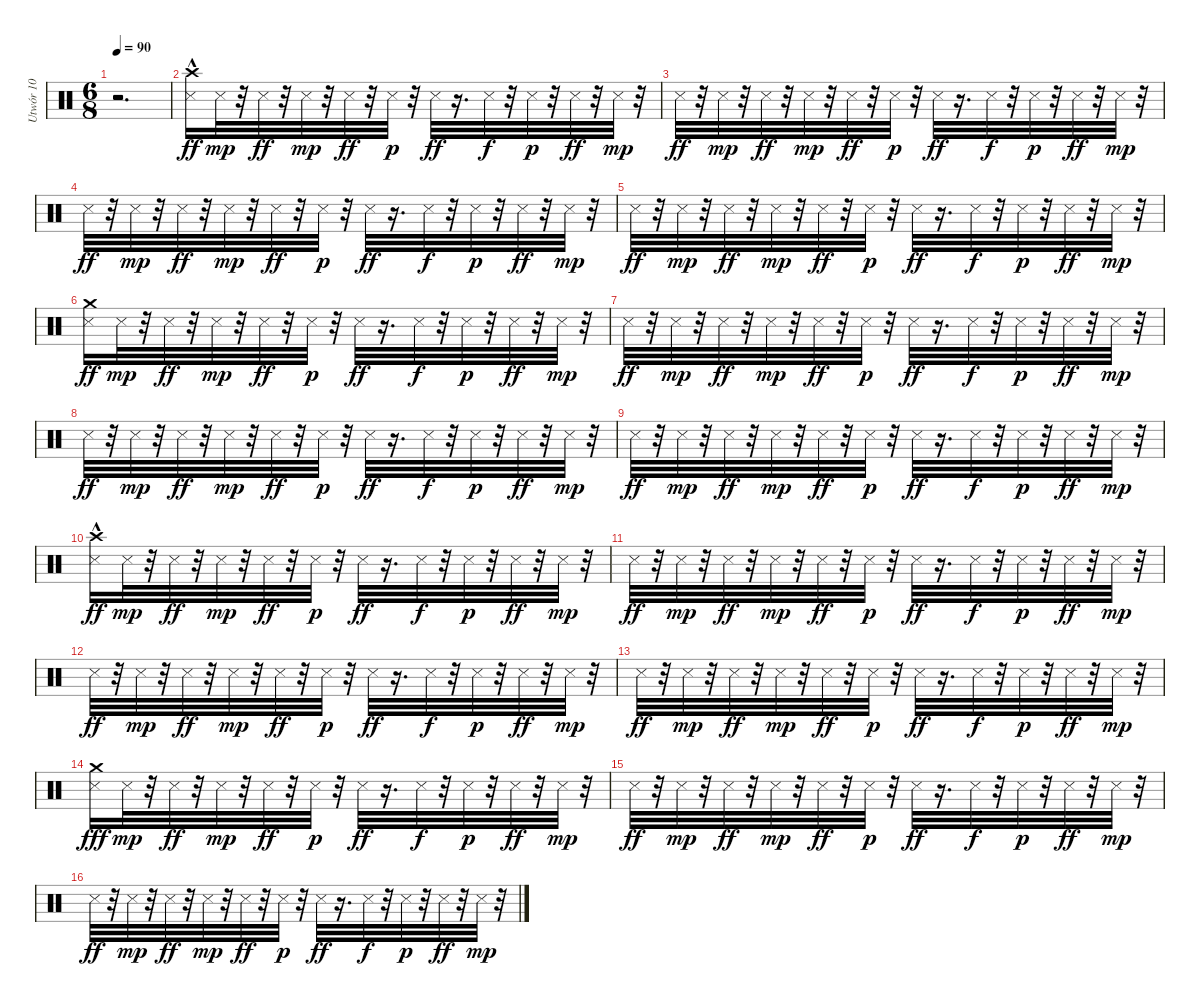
\track ("Utwór 10" "Utwór 10") {instrument percussion}
\staff {score}
\articulation defaults
\ts (6 8)
\tempo 90
\clef neutral
\ks c
r.2{d dy ff} |
("Crash high (hit)"{hac} "Snare (side stick) 3").16 "Snare (side stick) 3".32{dy mp} r.32 "Snare (side stick) 3".32{dy ff} r.32 "Snare (side stick) 3".32{dy mp} r.32 "Snare (side stick) 3".32{dy ff} r.32 "Snare (side stick) 3".32{dy p} r.32 "Snare (side stick) 3".32{dy ff} r.16{d} "Snare (side stick) 3".32{dy f} r.32 "Snare (side stick) 3".32{dy p} r.32 "Snare (side stick) 3".32{dy ff} r.32 "Snare (side stick) 3".32{dy mp} r.32 |
"Snare (side stick) 3".32{dy ff} r.32 "Snare (side stick) 3".32{dy mp} r.32 "Snare (side stick) 3".32{dy ff} r.32 "Snare (side stick) 3".32{dy mp} r.32 "Snare (side stick) 3".32{dy ff} r.32 "Snare (side stick) 3".32{dy p} r.32 "Snare (side stick) 3".32{dy ff} r.16{d} "Snare (side stick) 3".32{dy f} r.32 "Snare (side stick) 3".32{dy p} r.32 "Snare (side stick) 3".32{dy ff} r.32 "Snare (side stick) 3".32{dy mp} r.32 |
"Snare (side stick) 3".32{dy ff} r.32 "Snare (side stick) 3".32{dy mp} r.32 "Snare (side stick) 3".32{dy ff} r.32 "Snare (side stick) 3".32{dy mp} r.32 "Snare (side stick) 3".32{dy ff} r.32 "Snare (side stick) 3".32{dy p} r.32 "Snare (side stick) 3".32{dy ff} r.16{d} "Snare (side stick) 3".32{dy f} r.32 "Snare (side stick) 3".32{dy p} r.32 "Snare (side stick) 3".32{dy ff} r.32 "Snare (side stick) 3".32{dy mp} r.32 |
"Snare (side stick) 3".32{dy ff} r.32 "Snare (side stick) 3".32{dy mp} r.32 "Snare (side stick) 3".32{dy ff} r.32 "Snare (side stick) 3".32{dy mp} r.32 "Snare (side stick) 3".32{dy ff} r.32 "Snare (side stick) 3".32{dy p} r.32 "Snare (side stick) 3".32{dy ff} r.16{d} "Snare (side stick) 3".32{dy f} r.32 "Snare (side stick) 3".32{dy p} r.32 "Snare (side stick) 3".32{dy ff} r.32 "Snare (side stick) 3".32{dy mp} r.32 |
("Crash medium (hit)" "Snare (side stick) 3").16{dy ff} "Snare (side stick) 3".32{dy mp} r.32 "Snare (side stick) 3".32{dy ff} r.32 "Snare (side stick) 3".32{dy mp} r.32 "Snare (side stick) 3".32{dy ff} r.32 "Snare (side stick) 3".32{dy p} r.32 "Snare (side stick) 3".32{dy ff} r.16{d} "Snare (side stick) 3".32{dy f} r.32 "Snare (side stick) 3".32{dy p} r.32 "Snare (side stick) 3".32{dy ff} r.32 "Snare (side stick) 3".32{dy mp} r.32 |
"Snare (side stick) 3".32{dy ff} r.32 "Snare (side stick) 3".32{dy mp} r.32 "Snare (side stick) 3".32{dy ff} r.32 "Snare (side stick) 3".32{dy mp} r.32 "Snare (side stick) 3".32{dy ff} r.32 "Snare (side stick) 3".32{dy p} r.32 "Snare (side stick) 3".32{dy ff} r.16{d} "Snare (side stick) 3".32{dy f} r.32 "Snare (side stick) 3".32{dy p} r.32 "Snare (side stick) 3".32{dy ff} r.32 "Snare (side stick) 3".32{dy mp} r.32 |
"Snare (side stick) 3".32{dy ff} r.32 "Snare (side stick) 3".32{dy mp} r.32 "Snare (side stick) 3".32{dy ff} r.32 "Snare (side stick) 3".32{dy mp} r.32 "Snare (side stick) 3".32{dy ff} r.32 "Snare (side stick) 3".32{dy p} r.32 "Snare (side stick) 3".32{dy ff} r.16{d} "Snare (side stick) 3".32{dy f} r.32 "Snare (side stick) 3".32{dy p} r.32 "Snare (side stick) 3".32{dy ff} r.32 "Snare (side stick) 3".32{dy mp} r.32 |
"Snare (side stick) 3".32{dy ff} r.32 "Snare (side stick) 3".32{dy mp} r.32 "Snare (side stick) 3".32{dy ff} r.32 "Snare (side stick) 3".32{dy mp} r.32 "Snare (side stick) 3".32{dy ff} r.32 "Snare (side stick) 3".32{dy p} r.32 "Snare (side stick) 3".32{dy ff} r.16{d} "Snare (side stick) 3".32{dy f} r.32 "Snare (side stick) 3".32{dy p} r.32 "Snare (side stick) 3".32{dy ff} r.32 "Snare (side stick) 3".32{dy mp} r.32 |
("Snare (side stick) 3" "Crash high (hit)"{hac}).16{dy ff} "Snare (side stick) 3".32{dy mp} r.32 "Snare (side stick) 3".32{dy ff} r.32 "Snare (side stick) 3".32{dy mp} r.32 "Snare (side stick) 3".32{dy ff} r.32 "Snare (side stick) 3".32{dy p} r.32 "Snare (side stick) 3".32{dy ff} r.16{d} "Snare (side stick) 3".32{dy f} r.32 "Snare (side stick) 3".32{dy p} r.32 "Snare (side stick) 3".32{dy ff} r.32 "Snare (side stick) 3".32{dy mp} r.32 |
"Snare (side stick) 3".32{dy ff} r.32 "Snare (side stick) 3".32{dy mp} r.32 "Snare (side stick) 3".32{dy ff} r.32 "Snare (side stick) 3".32{dy mp} r.32 "Snare (side stick) 3".32{dy ff} r.32 "Snare (side stick) 3".32{dy p} r.32 "Snare (side stick) 3".32{dy ff} r.16{d} "Snare (side stick) 3".32{dy f} r.32 "Snare (side stick) 3".32{dy p} r.32 "Snare (side stick) 3".32{dy ff} r.32 "Snare (side stick) 3".32{dy mp} r.32 |
"Snare (side stick) 3".32{dy ff} r.32 "Snare (side stick) 3".32{dy mp} r.32 "Snare (side stick) 3".32{dy ff} r.32 "Snare (side stick) 3".32{dy mp} r.32 "Snare (side stick) 3".32{dy ff} r.32 "Snare (side stick) 3".32{dy p} r.32 "Snare (side stick) 3".32{dy ff} r.16{d} "Snare (side stick) 3".32{dy f} r.32 "Snare (side stick) 3".32{dy p} r.32 "Snare (side stick) 3".32{dy ff} r.32 "Snare (side stick) 3".32{dy mp} r.32 |
"Snare (side stick) 3".32{dy ff} r.32 "Snare (side stick) 3".32{dy mp} r.32 "Snare (side stick) 3".32{dy ff} r.32 "Snare (side stick) 3".32{dy mp} r.32 "Snare (side stick) 3".32{dy ff} r.32 "Snare (side stick) 3".32{dy p} r.32 "Snare (side stick) 3".32{dy ff} r.16{d} "Snare (side stick) 3".32{dy f} r.32 "Snare (side stick) 3".32{dy p} r.32 "Snare (side stick) 3".32{dy ff} r.32 "Snare (side stick) 3".32{dy mp} r.32 |
("Snare (side stick) 3" "Crash medium (hit)").16{dy fff} "Snare (side stick) 3".32{dy mp} r.32 "Snare (side stick) 3".32{dy ff} r.32 "Snare (side stick) 3".32{dy mp} r.32 "Snare (side stick) 3".32{dy ff} r.32 "Snare (side stick) 3".32{dy p} r.32 "Snare (side stick) 3".32{dy ff} r.16{d} "Snare (side stick) 3".32{dy f} r.32 "Snare (side stick) 3".32{dy p} r.32 "Snare (side stick) 3".32{dy ff} r.32 "Snare (side stick) 3".32{dy mp} r.32 |
"Snare (side stick) 3".32{dy ff} r.32 "Snare (side stick) 3".32{dy mp} r.32 "Snare (side stick) 3".32{dy ff} r.32 "Snare (side stick) 3".32{dy mp} r.32 "Snare (side stick) 3".32{dy ff} r.32 "Snare (side stick) 3".32{dy p} r.32 "Snare (side stick) 3".32{dy ff} r.16{d} "Snare (side stick) 3".32{dy f} r.32 "Snare (side stick) 3".32{dy p} r.32 "Snare (side stick) 3".32{dy ff} r.32 "Snare (side stick) 3".32{dy mp} r.32 |
"Snare (side stick) 3".32{dy ff} r.32 "Snare (side stick) 3".32{dy mp} r.32 "Snare (side stick) 3".32{dy ff} r.32 "Snare (side stick) 3".32{dy mp} r.32 "Snare (side stick) 3".32{dy ff} r.32 "Snare (side stick) 3".32{dy p} r.32 "Snare (side stick) 3".32{dy ff} r.16{d} "Snare (side stick) 3".32{dy f} r.32 "Snare (side stick) 3".32{dy p} r.32 "Snare (side stick) 3".32{dy ff} r.32 "Snare (side stick) 3".32{dy mp} r.32
